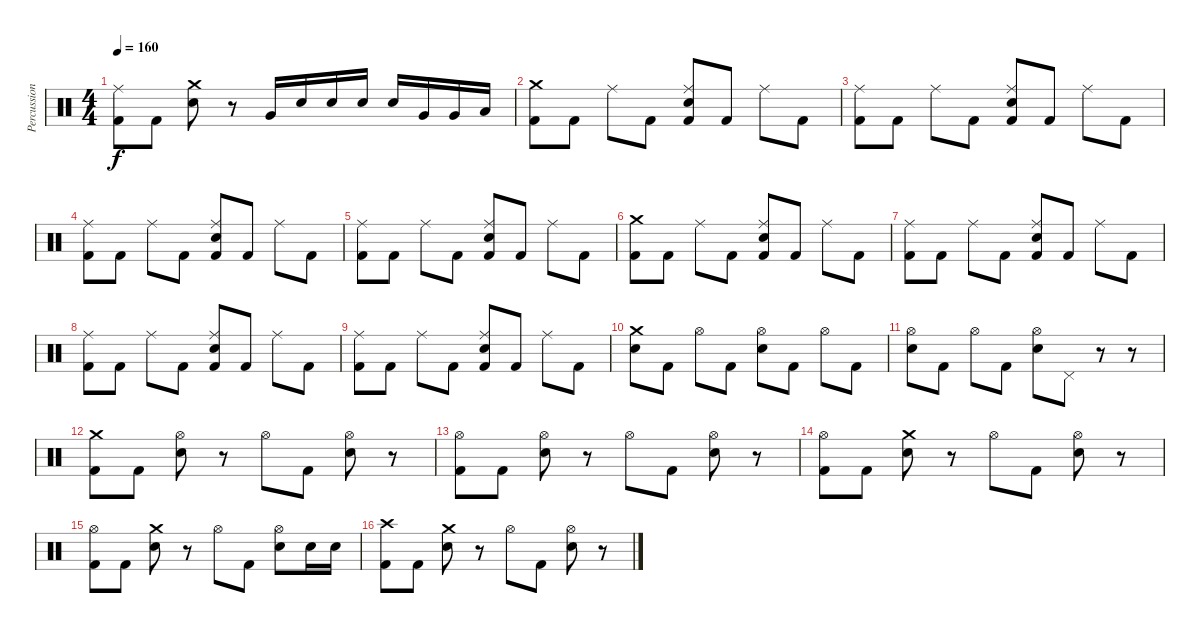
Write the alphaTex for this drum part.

\track ("Percussion" "Percussion") {instrument percussion}
\staff {score}
\articulation defaults
\ts (4 4)
\tempo 160
\clef neutral
\ks c
("Kick (hit) 2" "Ride (middle)").8{dy f} "Kick (hit) 2".8 ("Snare (hit) 2" "Crash medium (hit)").8 r.8 "Very Low Tom (hit)".16 "Snare (hit) 2".16 "Snare (hit) 2".16 "Snare (hit) 2".16 "Snare (hit) 2".16 "Very Low Tom (hit)".16 "Very Low Tom (hit)".16 "Low Tom (hit)".16 |
("Kick (hit) 2" "Crash medium (hit)").8 "Kick (hit) 2".8 "Ride (middle)".8 "Kick (hit) 2".8 ("Kick (hit) 2" "Snare (hit) 2" "Ride (middle)").8 "Kick (hit) 2".8 "Ride (middle)".8 "Kick (hit) 2".8 |
("Kick (hit) 2" "Ride (middle)").8 "Kick (hit) 2".8 "Ride (middle)".8 "Kick (hit) 2".8 ("Kick (hit) 2" "Snare (hit) 2" "Ride (middle)").8 "Kick (hit) 2".8 "Ride (middle)".8 "Kick (hit) 2".8 |
("Kick (hit) 2" "Ride (middle)").8 "Kick (hit) 2".8 "Ride (middle)".8 "Kick (hit) 2".8 ("Kick (hit) 2" "Snare (hit) 2" "Ride (middle)").8 "Kick (hit) 2".8 "Ride (middle)".8 "Kick (hit) 2".8 |
("Kick (hit) 2" "Ride (middle)").8 "Kick (hit) 2".8 "Ride (middle)".8 "Kick (hit) 2".8 ("Kick (hit) 2" "Snare (hit) 2" "Ride (middle)").8 "Kick (hit) 2".8 "Ride (middle)".8 "Kick (hit) 2".8 |
("Kick (hit) 2" "Crash medium (hit)").8 "Kick (hit) 2".8 "Ride (middle)".8 "Kick (hit) 2".8 ("Kick (hit) 2" "Snare (hit) 2" "Ride (middle)").8 "Kick (hit) 2".8 "Ride (middle)".8 "Kick (hit) 2".8 |
("Kick (hit) 2" "Ride (middle)").8 "Kick (hit) 2".8 "Ride (middle)".8 "Kick (hit) 2".8 ("Kick (hit) 2" "Snare (hit) 2" "Ride (middle)").8 "Kick (hit) 2".8 "Ride (middle)".8 "Kick (hit) 2".8 |
("Kick (hit) 2" "Ride (middle)").8 "Kick (hit) 2".8 "Ride (middle)".8 "Kick (hit) 2".8 ("Kick (hit) 2" "Snare (hit) 2" "Ride (middle)").8 "Kick (hit) 2".8 "Ride (middle)".8 "Kick (hit) 2".8 |
("Kick (hit) 2" "Ride (middle)").8 "Kick (hit) 2".8 "Ride (middle)".8 "Kick (hit) 2".8 ("Kick (hit) 2" "Snare (hit) 2" "Ride (middle)").8 "Kick (hit) 2".8 "Ride (middle)".8 "Kick (hit) 2".8 |
("Snare (hit) 2" "Crash medium (hit)").8 "Kick (hit) 2".8 "Hi-Hat (open)".8 "Kick (hit) 2".8 ("Snare (hit) 2" "Hi-Hat (open)").8 "Kick (hit) 2".8 "Hi-Hat (open)".8 "Kick (hit) 2".8 |
("Snare (hit) 2" "Hi-Hat (open)").8 "Kick (hit) 2".8 "Hi-Hat (open)".8 "Kick (hit) 2".8 ("Snare (hit) 2" "Hi-Hat (open)").8 "Pedal Hi-Hat (hit)".8 r.8 r.8 |
("Kick (hit) 2" "Crash medium (hit)").8 "Kick (hit) 2".8 ("Snare (hit) 2" "Hi-Hat (open)").8 r.8 "Hi-Hat (open)".8 "Kick (hit) 2".8 ("Snare (hit) 2" "Hi-Hat (open)").8 r.8 |
("Kick (hit) 2" "Hi-Hat (open)").8 "Kick (hit) 2".8 ("Snare (hit) 2" "Hi-Hat (open)").8 r.8 "Hi-Hat (open)".8 "Kick (hit) 2".8 ("Snare (hit) 2" "Hi-Hat (open)").8 r.8 |
("Kick (hit) 2" "Hi-Hat (open)").8 "Kick (hit) 2".8 ("Snare (hit) 2" "Crash medium (hit)").8 r.8 "Hi-Hat (open)".8 "Kick (hit) 2".8 ("Snare (hit) 2" "Hi-Hat (open)").8 r.8 |
("Kick (hit) 2" "Hi-Hat (open)").8 "Kick (hit) 2".8 ("Snare (hit) 2" "Crash medium (hit)").8 r.8 "Hi-Hat (open)".8 "Kick (hit) 2".8 ("Snare (hit) 2" "Hi-Hat (open)").8 "Snare (hit) 2".16 "Snare (hit) 2".16 |
("Kick (hit) 2" "Crash high (hit)").8 "Kick (hit) 2".8 ("Snare (hit) 2" "Crash medium (hit)").8 r.8 "Hi-Hat (open)".8 "Kick (hit) 2".8 ("Snare (hit) 2" "Hi-Hat (open)").8 r.8
